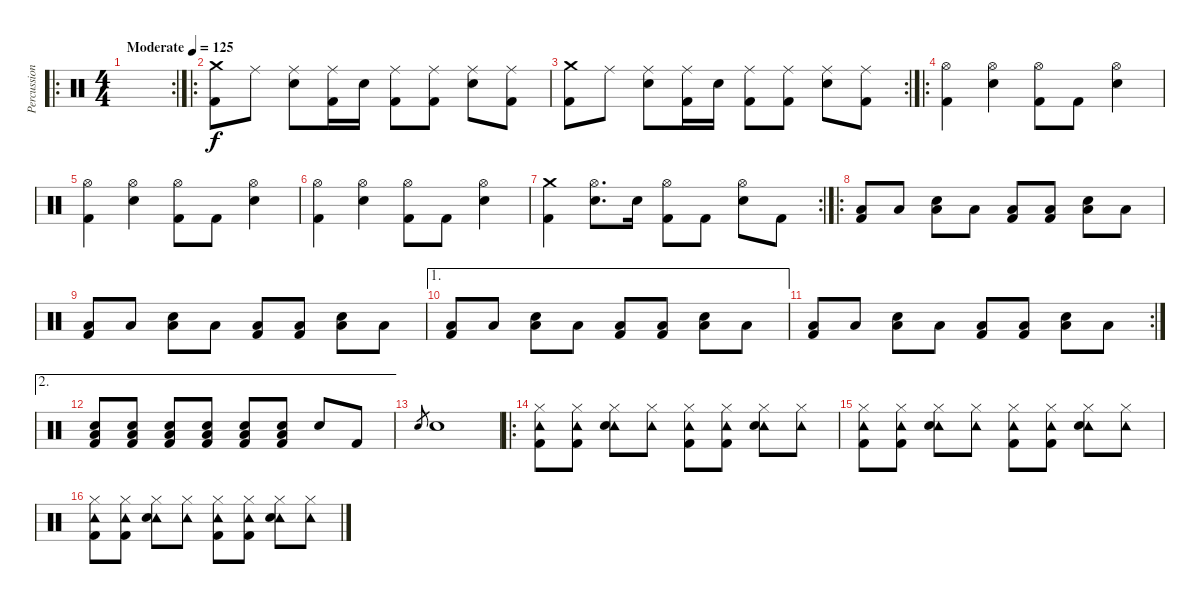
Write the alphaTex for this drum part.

\track ("Percussions" "Percussion") {instrument percussion}
\staff {score}
\articulation defaults
\ro
\rc 2
\ts (4 4)
\tempo (125 "Moderate")
\clef neutral
\ks c
|
\ro
("Crash medium (hit)" "Kick (hit) 2").8 "Ride (middle)".8 ("Ride (middle)" "Electric Snare (hit)").8 ("Ride (middle)" "Kick (hit) 2").16 "Electric Snare (hit)".16 ("Ride (middle)" "Kick (hit) 2").8 ("Ride (middle)" "Kick (hit) 2").8 ("Ride (middle)" "Electric Snare (hit)").8 ("Ride (middle)" "Kick (hit) 2").8 |
\rc 2
("Crash medium (hit)" "Kick (hit) 2").8 "Ride (middle)".8 ("Ride (middle)" "Electric Snare (hit)").8 ("Ride (middle)" "Kick (hit) 2").16 "Electric Snare (hit)".16 ("Ride (middle)" "Kick (hit) 2").8 ("Ride (middle)" "Kick (hit) 2").8 ("Ride (middle)" "Electric Snare (hit)").8 ("Ride (middle)" "Kick (hit) 2").8 |
\ro
("Hi-Hat (open)" "Kick (hit) 2").4 ("Hi-Hat (open)" "Electric Snare (hit)").4 ("Hi-Hat (open)" "Kick (hit) 2").8 "Kick (hit) 2".8 ("Hi-Hat (open)" "Electric Snare (hit)").4 |
("Hi-Hat (open)" "Kick (hit) 2").4 ("Hi-Hat (open)" "Electric Snare (hit)").4 ("Hi-Hat (open)" "Kick (hit) 2").8 "Kick (hit) 2".8 ("Hi-Hat (open)" "Electric Snare (hit)").4 |
("Hi-Hat (open)" "Kick (hit) 2").4 ("Hi-Hat (open)" "Electric Snare (hit)").4 ("Hi-Hat (open)" "Kick (hit) 2").8 "Kick (hit) 2".8 ("Hi-Hat (open)" "Electric Snare (hit)").4 |
\rc 2
("Crash medium (hit)" "Kick (hit) 2").4 ("Hi-Hat (open)" "Electric Snare (hit)").8{d} "Electric Snare (hit)".16 ("Hi-Hat (open)" "Kick (hit) 2").8 "Kick (hit) 2".8 ("Hi-Hat (open)" "Electric Snare (hit)").8 "Kick (hit) 2".8 |
\ro
("Low Tom (hit)" "Kick (hit) 2").8 "Low Tom (hit)".8 ("Low Tom (hit)" "Electric Snare (hit)").8 "Low Tom (hit)".8 ("Low Tom (hit)" "Kick (hit) 2").8 ("Low Tom (hit)" "Kick (hit) 2").8 ("Low Tom (hit)" "Electric Snare (hit)").8 "Low Tom (hit)".8 |
("Low Tom (hit)" "Kick (hit) 2").8 "Low Tom (hit)".8 ("Low Tom (hit)" "Electric Snare (hit)").8 "Low Tom (hit)".8 ("Low Tom (hit)" "Kick (hit) 2").8 ("Low Tom (hit)" "Kick (hit) 2").8 ("Low Tom (hit)" "Electric Snare (hit)").8 "Low Tom (hit)".8 |
\ae 1
("Low Tom (hit)" "Kick (hit) 2").8 "Low Tom (hit)".8 ("Low Tom (hit)" "Electric Snare (hit)").8 "Low Tom (hit)".8 ("Low Tom (hit)" "Kick (hit) 2").8 ("Low Tom (hit)" "Kick (hit) 2").8 ("Low Tom (hit)" "Electric Snare (hit)").8 "Low Tom (hit)".8 |
\rc 2
("Low Tom (hit)" "Kick (hit) 2").8 "Low Tom (hit)".8 ("Low Tom (hit)" "Electric Snare (hit)").8 "Low Tom (hit)".8 ("Low Tom (hit)" "Kick (hit) 2").8 ("Low Tom (hit)" "Kick (hit) 2").8 ("Low Tom (hit)" "Electric Snare (hit)").8 "Low Tom (hit)".8 |
\ae 2
("Low Tom (hit)" "Electric Snare (hit)" "Kick (hit) 2").8 ("Low Tom (hit)" "Electric Snare (hit)" "Kick (hit) 2").8 ("Low Tom (hit)" "Electric Snare (hit)" "Kick (hit) 2").8 ("Low Tom (hit)" "Electric Snare (hit)" "Kick (hit) 2").8 ("Low Tom (hit)" "Electric Snare (hit)" "Kick (hit) 2").8 ("Low Tom (hit)" "Electric Snare (hit)" "Kick (hit) 2").8 "Electric Snare (hit)".8 "Kick (hit) 2".8 |
"Electric Snare (hit)".8{gr} "Electric Snare (hit)".1 |
\ro
("Tambourine (hit)" "Hi-Hat (closed)" "Kick (hit) 2").8 ("Tambourine (hit)" "Hi-Hat (closed)" "Kick (hit) 2").8 ("Tambourine (hit)" "Hi-Hat (closed)" "Electric Snare (hit)").8 ("Tambourine (hit)" "Hi-Hat (closed)").8 ("Tambourine (hit)" "Hi-Hat (closed)" "Kick (hit) 2").8 ("Tambourine (hit)" "Hi-Hat (closed)" "Kick (hit) 2").8 ("Tambourine (hit)" "Hi-Hat (closed)" "Electric Snare (hit)").8 ("Tambourine (hit)" "Hi-Hat (closed)").8 |
("Tambourine (hit)" "Hi-Hat (closed)" "Kick (hit) 2").8 ("Tambourine (hit)" "Hi-Hat (closed)" "Kick (hit) 2").8 ("Tambourine (hit)" "Hi-Hat (closed)" "Electric Snare (hit)").8 ("Tambourine (hit)" "Hi-Hat (closed)").8 ("Tambourine (hit)" "Hi-Hat (closed)" "Kick (hit) 2").8 ("Tambourine (hit)" "Hi-Hat (closed)" "Kick (hit) 2").8 ("Tambourine (hit)" "Hi-Hat (closed)" "Electric Snare (hit)").8 ("Tambourine (hit)" "Hi-Hat (closed)").8 |
("Tambourine (hit)" "Hi-Hat (closed)" "Kick (hit) 2").8 ("Tambourine (hit)" "Hi-Hat (closed)" "Kick (hit) 2").8 ("Tambourine (hit)" "Hi-Hat (closed)" "Electric Snare (hit)").8 ("Tambourine (hit)" "Hi-Hat (closed)").8 ("Tambourine (hit)" "Hi-Hat (closed)" "Kick (hit) 2").8 ("Tambourine (hit)" "Hi-Hat (closed)" "Kick (hit) 2").8 ("Tambourine (hit)" "Hi-Hat (closed)" "Electric Snare (hit)").8 ("Tambourine (hit)" "Hi-Hat (closed)").8
